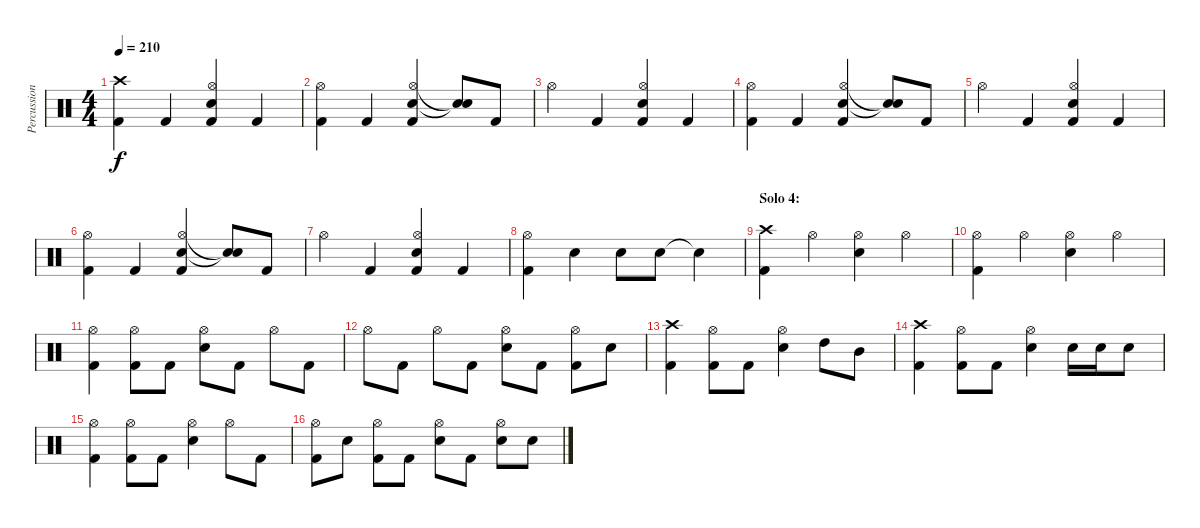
\track ("Percussion" "Percussion") {instrument percussion}
\staff {score}
\articulation defaults
\ts (4 4)
\tempo 210
\clef neutral
\ks c
("Crash high (hit)"{t} "Kick (hit) 2"{t}).4{dy f} "Kick (hit) 2".4 ("Hi-Hat (open)" "Snare (hit) 2" "Kick (hit) 2").4 "Kick (hit) 2".4 |
("Hi-Hat (open)" "Kick (hit) 2").4 "Kick (hit) 2".4 ("Hi-Hat (open)" "Snare (hit) 2" "Kick (hit) 2").4 ("Snare (hit)"{t} "Snare (hit)"{t}).8 "Kick (hit) 2".8 |
"Hi-Hat (open)".4 "Kick (hit) 2".4 ("Hi-Hat (open)" "Snare (hit) 2" "Kick (hit) 2").4 "Kick (hit) 2".4 |
("Hi-Hat (open)" "Kick (hit) 2").4 "Kick (hit) 2".4 ("Hi-Hat (open)" "Snare (hit) 2" "Kick (hit) 2").4 ("Snare (hit)"{t} "Snare (hit)"{t}).8 "Kick (hit) 2".8 |
"Hi-Hat (open)".4 "Kick (hit) 2".4 ("Hi-Hat (open)" "Snare (hit) 2" "Kick (hit) 2").4 "Kick (hit) 2".4 |
("Hi-Hat (open)" "Kick (hit) 2").4 "Kick (hit) 2".4 ("Hi-Hat (open)" "Snare (hit) 2" "Kick (hit) 2").4 ("Snare (hit)"{t} "Snare (hit)"{t}).8 "Kick (hit) 2".8 |
"Hi-Hat (open)".4 "Kick (hit) 2".4 ("Hi-Hat (open)" "Snare (hit) 2" "Kick (hit) 2").4 "Kick (hit) 2".4 |
("Hi-Hat (open)" "Kick (hit) 2").4 "Snare (hit) 2".4 "Snare (hit) 2".8 "Snare (hit) 2".8 "Snare (hit)"{t}.4 |
\section ("" "Solo 4:")
("Crash high (hit)" "Kick (hit) 2").4 "Hi-Hat (open)".4 ("Hi-Hat (open)" "Snare (hit) 2").4 "Hi-Hat (open)".4 |
("Hi-Hat (open)" "Kick (hit) 2").4 "Hi-Hat (open)".4 ("Hi-Hat (open)" "Snare (hit) 2").4 "Hi-Hat (open)".4 |
("Hi-Hat (open)" "Kick (hit) 2").4 ("Hi-Hat (open)" "Kick (hit) 2").8 "Kick (hit) 2".8 ("Hi-Hat (open)" "Snare (hit) 2").8 "Kick (hit) 2".8 "Hi-Hat (open)".8 "Kick (hit) 2".8 |
"Hi-Hat (open)".8 "Kick (hit) 2".8 "Hi-Hat (open)".8 "Kick (hit) 2".8 ("Hi-Hat (open)" "Snare (hit) 2").8 "Kick (hit) 2".8 ("Hi-Hat (open)" "Kick (hit) 2").8 "Snare (hit) 2".8 |
("Crash high (hit)" "Kick (hit) 2").4 ("Hi-Hat (open)" "Kick (hit) 2").8 "Kick (hit) 2".8 ("Hi-Hat (open)" "Snare (hit) 2").4 "High Tom (hit)".8 "Mid Tom (hit)".8 |
("Crash high (hit)" "Kick (hit) 2").4 ("Hi-Hat (open)" "Kick (hit) 2").8 "Kick (hit) 2".8 ("Hi-Hat (open)" "Snare (hit) 2").4 "Snare (hit) 2".16 "Snare (hit) 2".16 "Snare (hit) 2".8 |
("Hi-Hat (open)" "Kick (hit) 2").4 ("Hi-Hat (open)" "Kick (hit) 2").8 "Kick (hit) 2".8 ("Hi-Hat (open)" "Snare (hit) 2").4 "Hi-Hat (open)".8 "Kick (hit) 2".8 |
("Hi-Hat (open)" "Kick (hit) 2").8 "Snare (hit) 2".8 ("Hi-Hat (open)" "Kick (hit) 2").8 "Kick (hit) 2".8 ("Hi-Hat (open)" "Snare (hit) 2").8 "Kick (hit) 2".8 ("Hi-Hat (open)" "Snare (hit) 2").8 "Snare (hit) 2".8
